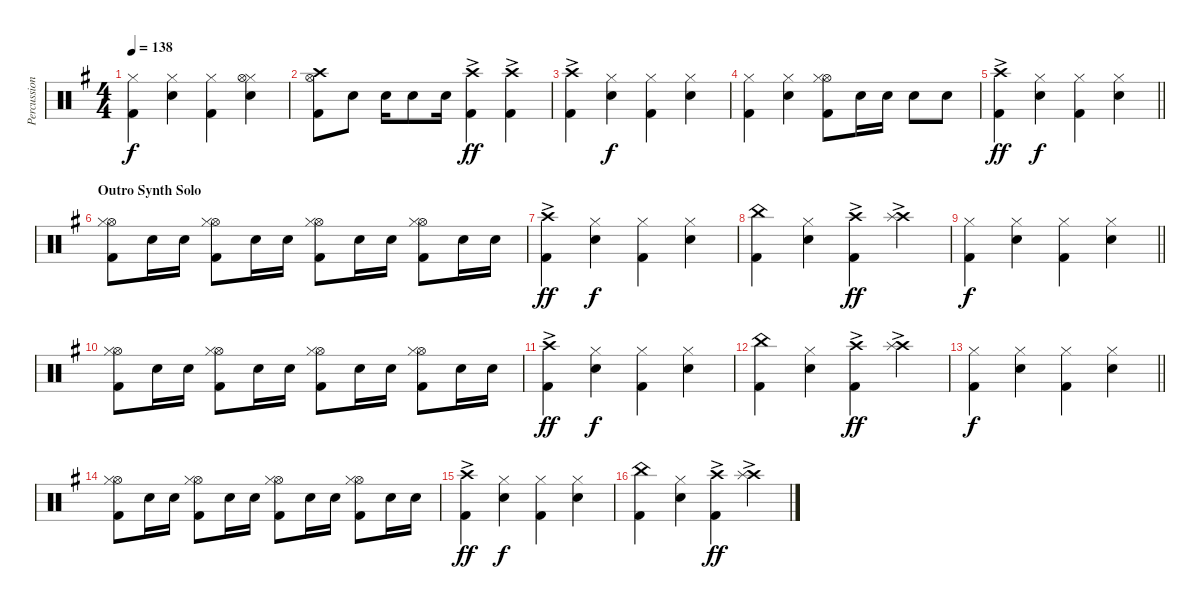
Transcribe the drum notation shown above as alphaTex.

\track ("Percussion" "Percussion") {instrument percussion}
\staff {score}
\articulation defaults
\ts (4 4)
\tempo 138
\clef neutral
\ks g
("Hi-Hat (closed)" "Kick (hit) 2").4{dy f} ("Hi-Hat (closed)" "Snare (hit) 2").4 ("Hi-Hat (closed)" "Kick (hit) 2").4 ("Hi-Hat (closed)" "Hi-Hat (open)" "Snare (hit) 2").4 |
("Crash high (hit)" "Hi-Hat (open)" "Kick (hit) 2").8 "Snare (hit) 2".8 "Snare (hit) 2".16 "Snare (hit) 2".8 "Snare (hit) 2".16 ("Crash high (hit)"{ac} "Kick (hit) 2"{ac}).4{dy ff} ("Crash high (hit)"{ac} "Kick (hit) 2"{ac}).4 |
("Crash high (hit)"{ac} "Kick (hit) 2").4 ("Hi-Hat (closed)" "Snare (hit) 2").4{dy f} ("Hi-Hat (closed)" "Kick (hit) 2").4 ("Hi-Hat (closed)" "Snare (hit) 2").4 |
("Hi-Hat (closed)" "Kick (hit) 2").4 ("Hi-Hat (closed)" "Snare (hit) 2").4 ("Hi-Hat (open)" "Hi-Hat (closed)" "Kick (hit) 2").8 "Snare (hit) 2".16{beam merge} "Snare (hit) 2".16 "Snare (hit) 2".8 "Snare (hit) 2".8 |
\barLineRight lightlight
("Crash high (hit)"{ac} "Kick (hit) 2").4{dy ff} ("Hi-Hat (closed)" "Snare (hit) 2").4{dy f} ("Hi-Hat (closed)" "Kick (hit) 2").4 ("Hi-Hat (closed)" "Snare (hit) 2").4 |
\section ("" "Outro Synth Solo")
("Hi-Hat (open)" "Hi-Hat (closed)" "Kick (hit) 2").8 "Snare (hit) 2".16 "Snare (hit) 2".16 ("Hi-Hat (open)" "Hi-Hat (closed)" "Kick (hit) 2").8 "Snare (hit) 2".16 "Snare (hit) 2".16 ("Hi-Hat (open)" "Hi-Hat (closed)" "Kick (hit) 2").8 "Snare (hit) 2".16 "Snare (hit) 2".16 ("Hi-Hat (open)" "Hi-Hat (closed)" "Kick (hit) 2").8 "Snare (hit) 2".16 "Snare (hit) 2".16 |
("Crash high (hit)"{ac} "Kick (hit) 2").4{dy ff} ("Hi-Hat (closed)" "Snare (hit) 2").4{dy f} ("Hi-Hat (closed)" "Kick (hit) 2").4 ("Hi-Hat (closed)" "Snare (hit) 2").4 |
("China (hit)" "Kick (hit) 2").4 ("Hi-Hat (closed)" "Snare (hit) 2").4 ("Crash high (hit)"{ac} "Kick (hit) 2"{ac}).4{dy ff} ("Crash high (hit)"{ac} "Splash (hit)"{ac}).4 |
\barLineRight lightlight
("Hi-Hat (closed)" "Kick (hit) 2").4{dy f} ("Hi-Hat (closed)" "Snare (hit) 2").4 ("Hi-Hat (closed)" "Kick (hit) 2").4 ("Hi-Hat (closed)" "Snare (hit) 2").4 |
("Hi-Hat (open)" "Hi-Hat (closed)" "Kick (hit) 2").8 "Snare (hit) 2".16 "Snare (hit) 2".16 ("Hi-Hat (open)" "Hi-Hat (closed)" "Kick (hit) 2").8 "Snare (hit) 2".16 "Snare (hit) 2".16 ("Hi-Hat (open)" "Hi-Hat (closed)" "Kick (hit) 2").8 "Snare (hit) 2".16 "Snare (hit) 2".16 ("Hi-Hat (open)" "Hi-Hat (closed)" "Kick (hit) 2").8 "Snare (hit) 2".16 "Snare (hit) 2".16 |
("Crash high (hit)"{ac} "Kick (hit) 2").4{dy ff} ("Hi-Hat (closed)" "Snare (hit) 2").4{dy f} ("Hi-Hat (closed)" "Kick (hit) 2").4 ("Hi-Hat (closed)" "Snare (hit) 2").4 |
("China (hit)" "Kick (hit) 2").4 ("Hi-Hat (closed)" "Snare (hit) 2").4 ("Crash high (hit)"{ac} "Kick (hit) 2"{ac}).4{dy ff} ("Crash high (hit)"{ac} "Splash (hit)"{ac}).4 |
\barLineRight lightlight
("Hi-Hat (closed)" "Kick (hit) 2").4{dy f} ("Hi-Hat (closed)" "Snare (hit) 2").4 ("Hi-Hat (closed)" "Kick (hit) 2").4 ("Hi-Hat (closed)" "Snare (hit) 2").4 |
("Hi-Hat (open)" "Hi-Hat (closed)" "Kick (hit) 2").8 "Snare (hit) 2".16 "Snare (hit) 2".16 ("Hi-Hat (open)" "Hi-Hat (closed)" "Kick (hit) 2").8 "Snare (hit) 2".16 "Snare (hit) 2".16 ("Hi-Hat (open)" "Hi-Hat (closed)" "Kick (hit) 2").8 "Snare (hit) 2".16 "Snare (hit) 2".16 ("Hi-Hat (open)" "Hi-Hat (closed)" "Kick (hit) 2").8 "Snare (hit) 2".16 "Snare (hit) 2".16 |
("Crash high (hit)"{ac} "Kick (hit) 2").4{dy ff} ("Hi-Hat (closed)" "Snare (hit) 2").4{dy f} ("Hi-Hat (closed)" "Kick (hit) 2").4 ("Hi-Hat (closed)" "Snare (hit) 2").4 |
("China (hit)" "Kick (hit) 2").4 ("Hi-Hat (closed)" "Snare (hit) 2").4 ("Crash high (hit)"{ac} "Kick (hit) 2"{ac}).4{dy ff} ("Crash high (hit)"{ac} "Splash (hit)"{ac}).4
